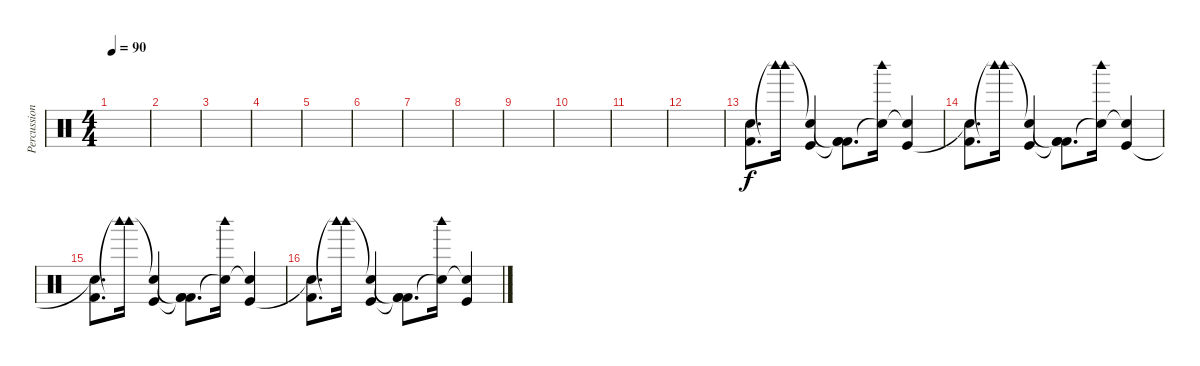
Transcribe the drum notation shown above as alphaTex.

\track ("Percussion" "Percussion") {instrument percussion}
\staff {score}
\articulation defaults
\ts (4 4)
\tempo 90
\clef neutral
\ks c
|
|
|
|
|
|
|
|
|
|
|
|
("Kick (hit) 2" "Snare (hit)").8{d} ("Woodblock high (hit)"{t} "Woodblock high (hit)").16 ("Snare (hit)"{t} "Kick (hit)").4 ("Kick (hit) 2"{t} "Kick (hit) 2"{t} "Kick (hit) 2").8{d} ("Snare (hit)"{t} "Woodblock high (hit)").16 ("Snare (hit)"{t} "Kick (hit)").4 |
("Kick (hit) 2" "Snare (hit)"{t}).8{d} ("Woodblock high (hit)"{t} "Woodblock high (hit)").16 ("Snare (hit)"{t} "Kick (hit)").4 ("Kick (hit) 2"{t} "Kick (hit) 2"{t} "Kick (hit) 2").8{d} ("Snare (hit)"{t} "Woodblock high (hit)").16 ("Snare (hit)"{t} "Kick (hit)").4 |
("Kick (hit) 2" "Snare (hit)"{t}).8{d} ("Woodblock high (hit)"{t} "Woodblock high (hit)").16 ("Snare (hit)"{t} "Kick (hit)").4 ("Kick (hit) 2"{t} "Kick (hit) 2"{t} "Kick (hit) 2").8{d} ("Snare (hit)"{t} "Woodblock high (hit)").16 ("Snare (hit)"{t} "Kick (hit)").4 |
("Kick (hit) 2" "Snare (hit)"{t}).8{d} ("Woodblock high (hit)"{t} "Woodblock high (hit)").16 ("Snare (hit)"{t} "Kick (hit)").4 ("Kick (hit) 2"{t} "Kick (hit) 2"{t} "Kick (hit) 2").8{d} ("Snare (hit)"{t} "Woodblock high (hit)").16 ("Snare (hit)"{t} "Kick (hit)").4
